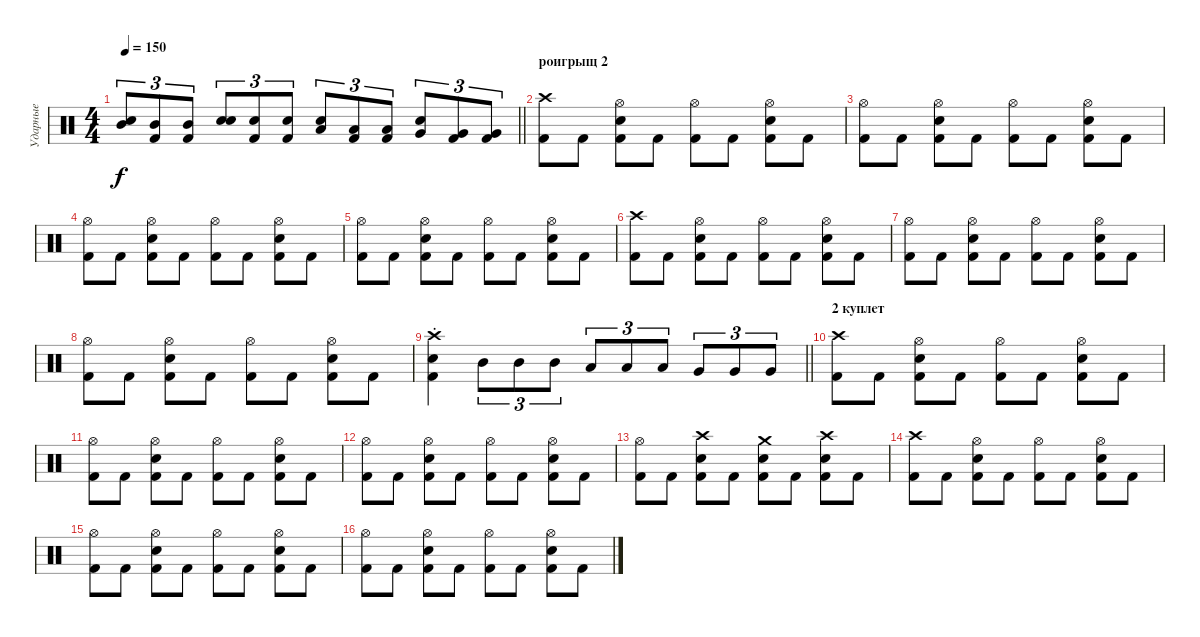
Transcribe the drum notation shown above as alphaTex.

\track ("Ударные" "Ударные") {instrument percussion}
\staff {score}
\articulation defaults
\ts (4 4)
\tempo 150
\clef neutral
\barLineRight lightlight
\ks c
("Mid Tom (hit)" "Snare (hit) 2").8{tu (3 2) dy f} ("Mid Tom (hit)" "Kick (hit) 2").8{tu (3 2)} ("Mid Tom (hit)" "Kick (hit) 2").8{tu (3 2)} ("Electric Snare (hit)" "Snare (hit) 2").8{tu (3 2)} ("Electric Snare (hit)" "Kick (hit) 2").8{tu (3 2)} ("Electric Snare (hit)" "Kick (hit) 2").8{tu (3 2)} ("Low Tom (hit)" "Snare (hit) 2").8{tu (3 2)} ("Low Tom (hit)" "Kick (hit) 2").8{tu (3 2)} ("Low Tom (hit)" "Kick (hit) 2").8{tu (3 2)} ("Very Low Tom (hit)" "Snare (hit) 2").8{tu (3 2)} ("Very Low Tom (hit)" "Kick (hit) 2").8{tu (3 2)} ("Very Low Tom (hit)" "Kick (hit) 2").8{tu (3 2)} |
\section ("" "роигрыщ 2")
("Kick (hit) 2" "Crash high (hit)").8 "Kick (hit) 2".8 ("Snare (hit) 2" "Kick (hit) 2" "Hi-Hat (open)").8 "Kick (hit) 2".8 ("Kick (hit) 2" "Hi-Hat (open)").8 "Kick (hit) 2".8 ("Snare (hit) 2" "Kick (hit) 2" "Hi-Hat (open)").8 "Kick (hit) 2".8 |
("Kick (hit) 2" "Hi-Hat (open)").8 "Kick (hit) 2".8 ("Snare (hit) 2" "Kick (hit) 2" "Hi-Hat (open)").8 "Kick (hit) 2".8 ("Kick (hit) 2" "Hi-Hat (open)").8 "Kick (hit) 2".8 ("Snare (hit) 2" "Kick (hit) 2" "Hi-Hat (open)").8 "Kick (hit) 2".8 |
("Kick (hit) 2" "Hi-Hat (open)").8 "Kick (hit) 2".8 ("Snare (hit) 2" "Kick (hit) 2" "Hi-Hat (open)").8 "Kick (hit) 2".8 ("Kick (hit) 2" "Hi-Hat (open)").8 "Kick (hit) 2".8 ("Snare (hit) 2" "Kick (hit) 2" "Hi-Hat (open)").8 "Kick (hit) 2".8 |
("Kick (hit) 2" "Hi-Hat (open)").8 "Kick (hit) 2".8 ("Snare (hit) 2" "Kick (hit) 2" "Hi-Hat (open)").8 "Kick (hit) 2".8 ("Kick (hit) 2" "Hi-Hat (open)").8 "Kick (hit) 2".8 ("Snare (hit) 2" "Kick (hit) 2" "Hi-Hat (open)").8 "Kick (hit) 2".8 |
("Kick (hit) 2" "Crash high (hit)").8 "Kick (hit) 2".8 ("Snare (hit) 2" "Kick (hit) 2" "Hi-Hat (open)").8 "Kick (hit) 2".8 ("Kick (hit) 2" "Hi-Hat (open)").8 "Kick (hit) 2".8 ("Snare (hit) 2" "Kick (hit) 2" "Hi-Hat (open)").8 "Kick (hit) 2".8 |
("Kick (hit) 2" "Hi-Hat (open)").8 "Kick (hit) 2".8 ("Snare (hit) 2" "Kick (hit) 2" "Hi-Hat (open)").8 "Kick (hit) 2".8 ("Kick (hit) 2" "Hi-Hat (open)").8 "Kick (hit) 2".8 ("Snare (hit) 2" "Kick (hit) 2" "Hi-Hat (open)").8 "Kick (hit) 2".8 |
("Kick (hit) 2" "Hi-Hat (open)").8 "Kick (hit) 2".8 ("Snare (hit) 2" "Kick (hit) 2" "Hi-Hat (open)").8 "Kick (hit) 2".8 ("Kick (hit) 2" "Hi-Hat (open)").8 "Kick (hit) 2".8 ("Snare (hit) 2" "Kick (hit) 2" "Hi-Hat (open)").8 "Kick (hit) 2".8 |
\barLineRight lightlight
("Kick (hit) 2"{st} "Snare (hit) 2"{st} "Crash high (hit)"{st}).4 "Mid Tom (hit)".8{tu (3 2)} "Mid Tom (hit)".8{tu (3 2)} "Mid Tom (hit)".8{tu (3 2)} "Low Tom (hit)".8{tu (3 2)} "Low Tom (hit)".8{tu (3 2)} "Low Tom (hit)".8{tu (3 2)} "Very Low Tom (hit)".8{tu (3 2)} "Very Low Tom (hit)".8{tu (3 2)} "Very Low Tom (hit)".8{tu (3 2)} |
\section ("" "2 куплет")
("Kick (hit) 2" "Crash high (hit)").8 "Kick (hit) 2".8 ("Snare (hit) 2" "Kick (hit) 2" "Hi-Hat (open)").8 "Kick (hit) 2".8 ("Kick (hit) 2" "Hi-Hat (open)").8 "Kick (hit) 2".8 ("Snare (hit) 2" "Kick (hit) 2" "Hi-Hat (open)").8 "Kick (hit) 2".8 |
("Kick (hit) 2" "Hi-Hat (open)").8 "Kick (hit) 2".8 ("Snare (hit) 2" "Kick (hit) 2" "Hi-Hat (open)").8 "Kick (hit) 2".8 ("Kick (hit) 2" "Hi-Hat (open)").8 "Kick (hit) 2".8 ("Snare (hit) 2" "Kick (hit) 2" "Hi-Hat (open)").8 "Kick (hit) 2".8 |
("Kick (hit) 2" "Hi-Hat (open)").8 "Kick (hit) 2".8 ("Snare (hit) 2" "Kick (hit) 2" "Hi-Hat (open)").8 "Kick (hit) 2".8 ("Kick (hit) 2" "Hi-Hat (open)").8 "Kick (hit) 2".8 ("Snare (hit) 2" "Kick (hit) 2" "Hi-Hat (open)").8 "Kick (hit) 2".8 |
("Kick (hit) 2" "Hi-Hat (open)").8 "Kick (hit) 2".8 ("Snare (hit) 2" "Kick (hit) 2" "Crash high (hit)").8 "Kick (hit) 2".8 ("Kick (hit) 2" "Snare (hit) 2" "Crash medium (hit)").8 "Kick (hit) 2".8 ("Snare (hit) 2" "Kick (hit) 2" "Crash high (hit)").8 "Kick (hit) 2".8 |
("Kick (hit) 2" "Crash high (hit)").8 "Kick (hit) 2".8 ("Snare (hit) 2" "Kick (hit) 2" "Hi-Hat (open)").8 "Kick (hit) 2".8 ("Kick (hit) 2" "Hi-Hat (open)").8 "Kick (hit) 2".8 ("Snare (hit) 2" "Kick (hit) 2" "Hi-Hat (open)").8 "Kick (hit) 2".8 |
("Kick (hit) 2" "Hi-Hat (open)").8 "Kick (hit) 2".8 ("Snare (hit) 2" "Kick (hit) 2" "Hi-Hat (open)").8 "Kick (hit) 2".8 ("Kick (hit) 2" "Hi-Hat (open)").8 "Kick (hit) 2".8 ("Snare (hit) 2" "Kick (hit) 2" "Hi-Hat (open)").8 "Kick (hit) 2".8 |
("Kick (hit) 2" "Hi-Hat (open)").8 "Kick (hit) 2".8 ("Snare (hit) 2" "Kick (hit) 2" "Hi-Hat (open)").8 "Kick (hit) 2".8 ("Kick (hit) 2" "Hi-Hat (open)").8 "Kick (hit) 2".8 ("Snare (hit) 2" "Kick (hit) 2" "Hi-Hat (open)").8 "Kick (hit) 2".8
